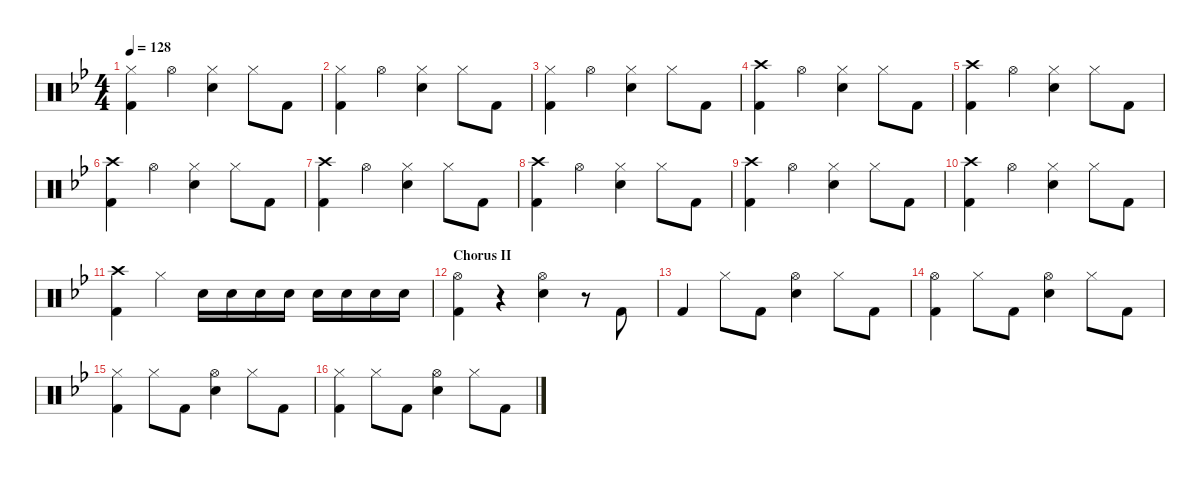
\defaultSystemsLayout 4
\hideDynamics
\bracketExtendMode groupsimilarinstruments
\singleTrackTrackNamePolicy hidden
\multiTrackTrackNamePolicy hidden
\firstSystemTrackNameMode fullname
\firstSystemTrackNameOrientation horizontal
\otherSystemsTrackNameOrientation horizontal
\extendBarLines
\track ("Drums" "drm.") {instrument percussion}
\staff {score}
\articulation defaults
\ts (4 4)
\tempo 128
\clef neutral
\ks bb
("Hi-Hat (closed)"{acc forcenatural} "Kick (hit) 2"{acc forcenatural}).4{dy f beam Down} "Hi-Hat (open)"{acc forcenatural}.4{beam Down} ("Hi-Hat (closed)"{acc forcenatural} "Snare (hit) 2"{acc forcenatural}).4{beam Down} "Hi-Hat (closed)"{acc forcenatural}.8{beam Down} "Kick (hit) 2"{acc forcenatural}.8{beam Down} |
("Hi-Hat (closed)"{acc forcenatural} "Kick (hit) 2"{acc forcenatural}).4{beam Down} "Hi-Hat (open)"{acc forcenatural}.4{beam Down} ("Hi-Hat (closed)"{acc forcenatural} "Snare (hit) 2"{acc forcenatural}).4{beam Down} "Hi-Hat (closed)"{acc forcenatural}.8{beam Down} "Kick (hit) 2"{acc forcenatural}.8{beam Down} |
("Hi-Hat (closed)"{acc forcenatural} "Kick (hit) 2"{acc forcenatural}).4{beam Down} "Hi-Hat (open)"{acc forcenatural}.4{beam Down} ("Hi-Hat (closed)"{acc forcenatural} "Snare (hit) 2"{acc forcenatural}).4{beam Down} "Hi-Hat (closed)"{acc forcenatural}.8{beam Down} "Kick (hit) 2"{acc forcenatural}.8{beam Down} |
("Crash high (hit)"{acc forcenatural} "Kick (hit) 2"{acc forcenatural}).4{beam Down} "Hi-Hat (open)"{acc forcenatural}.4{beam Down} ("Hi-Hat (closed)"{acc forcenatural} "Snare (hit) 2"{acc forcenatural}).4{beam Down} "Hi-Hat (closed)"{acc forcenatural}.8{beam Down} "Kick (hit) 2"{acc forcenatural}.8{beam Down} |
("Crash high (hit)"{acc forcenatural} "Kick (hit) 2"{acc forcenatural}).4{beam Down} "Hi-Hat (open)"{acc forcenatural}.4{beam Down} ("Hi-Hat (closed)"{acc forcenatural} "Snare (hit) 2"{acc forcenatural}).4{beam Down} "Hi-Hat (closed)"{acc forcenatural}.8{beam Down} "Kick (hit) 2"{acc forcenatural}.8{beam Down} |
("Crash high (hit)"{acc forcenatural} "Kick (hit) 2"{acc forcenatural}).4{beam Down} "Hi-Hat (open)"{acc forcenatural}.4{beam Down} ("Hi-Hat (closed)"{acc forcenatural} "Snare (hit) 2"{acc forcenatural}).4{beam Down} "Hi-Hat (closed)"{acc forcenatural}.8{beam Down} "Kick (hit) 2"{acc forcenatural}.8{beam Down} |
("Crash high (hit)"{acc forcenatural} "Kick (hit) 2"{acc forcenatural}).4{beam Down} "Hi-Hat (open)"{acc forcenatural}.4{beam Down} ("Hi-Hat (closed)"{acc forcenatural} "Snare (hit) 2"{acc forcenatural}).4{beam Down} "Hi-Hat (closed)"{acc forcenatural}.8{beam Down} "Kick (hit) 2"{acc forcenatural}.8{beam Down} |
("Crash high (hit)"{acc forcenatural} "Kick (hit) 2"{acc forcenatural}).4{beam Down} "Hi-Hat (open)"{acc forcenatural}.4{beam Down} ("Hi-Hat (closed)"{acc forcenatural} "Snare (hit) 2"{acc forcenatural}).4{beam Down} "Hi-Hat (closed)"{acc forcenatural}.8{beam Down} "Kick (hit) 2"{acc forcenatural}.8{beam Down} |
("Crash high (hit)"{acc forcenatural} "Kick (hit) 2"{acc forcenatural}).4{beam Down} "Hi-Hat (open)"{acc forcenatural}.4{beam Down} ("Hi-Hat (closed)"{acc forcenatural} "Snare (hit) 2"{acc forcenatural}).4{beam Down} "Hi-Hat (closed)"{acc forcenatural}.8{beam Down} "Kick (hit) 2"{acc forcenatural}.8{beam Down} |
("Crash high (hit)"{acc forcenatural} "Kick (hit) 2"{acc forcenatural}).4{beam Down} "Hi-Hat (open)"{acc forcenatural}.4{beam Down} ("Hi-Hat (closed)"{acc forcenatural} "Snare (hit) 2"{acc forcenatural}).4{beam Down} "Hi-Hat (closed)"{acc forcenatural}.8{beam Down} "Kick (hit) 2"{acc forcenatural}.8{beam Down} |
("Crash high (hit)"{acc forcenatural} "Kick (hit) 2"{acc forcenatural}).4{beam Down} "Hi-Hat (closed)"{acc forcenatural}.4{beam Down} "Snare (hit) 2"{acc forcenatural}.16{beam Down} "Snare (hit) 2"{acc forcenatural}.16{beam Down} "Snare (hit) 2"{acc forcenatural}.16{beam Down} "Snare (hit) 2"{acc forcenatural}.16{beam Down} "Snare (hit) 2"{acc forcenatural}.16{beam Down} "Snare (hit) 2"{acc forcenatural}.16{beam Down} "Snare (hit) 2"{acc forcenatural}.16{beam Down} "Snare (hit) 2"{acc forcenatural}.16{beam Down} |
\section ("" "Chorus II")
("Hi-Hat (open)"{acc forcenatural} "Kick (hit) 2"{acc forcenatural}).4{beam Down} r.4{beam Down} ("Hi-Hat (open)"{acc forcenatural} "Snare (hit) 2"{acc forcenatural}).4{beam Down} r.8{beam Down} "Kick (hit) 2"{acc forcenatural}.8{beam Up} |
"Kick (hit) 2"{acc forcenatural}.4{beam Up} "Hi-Hat (closed)"{acc forcenatural}.8{beam Down} "Kick (hit) 2"{acc forcenatural}.8{beam Down} ("Hi-Hat (open)"{acc forcenatural} "Snare (hit) 2"{acc forcenatural}).4{beam Down} "Hi-Hat (closed)"{acc forcenatural}.8{beam Down} "Kick (hit) 2"{acc forcenatural}.8{beam Down} |
("Hi-Hat (open)"{acc forcenatural} "Kick (hit) 2"{acc forcenatural}).4{beam Down} "Hi-Hat (closed)"{acc forcenatural}.8{beam Down} "Kick (hit) 2"{acc forcenatural}.8{beam Down} ("Hi-Hat (open)"{acc forcenatural} "Snare (hit) 2"{acc forcenatural}).4{beam Down} "Hi-Hat (closed)"{acc forcenatural}.8{beam Down} "Kick (hit) 2"{acc forcenatural}.8{beam Down} |
("Hi-Hat (closed)"{acc forcenatural} "Kick (hit) 2"{acc forcenatural}).4{beam Down} "Hi-Hat (closed)"{acc forcenatural}.8{beam Down} "Kick (hit) 2"{acc forcenatural}.8{beam Down} ("Hi-Hat (open)"{acc forcenatural} "Snare (hit) 2"{acc forcenatural}).4{beam Down} "Hi-Hat (closed)"{acc forcenatural}.8{beam Down} "Kick (hit) 2"{acc forcenatural}.8{beam Down} |
("Hi-Hat (closed)"{acc forcenatural} "Kick (hit) 2"{acc forcenatural}).4{beam Down} "Hi-Hat (closed)"{acc forcenatural}.8{beam Down} "Kick (hit) 2"{acc forcenatural}.8{beam Down} ("Hi-Hat (open)"{acc forcenatural} "Snare (hit) 2"{acc forcenatural}).4{beam Down} "Hi-Hat (closed)"{acc forcenatural}.8{beam Down} "Kick (hit) 2"{acc forcenatural}.8{beam Down}
